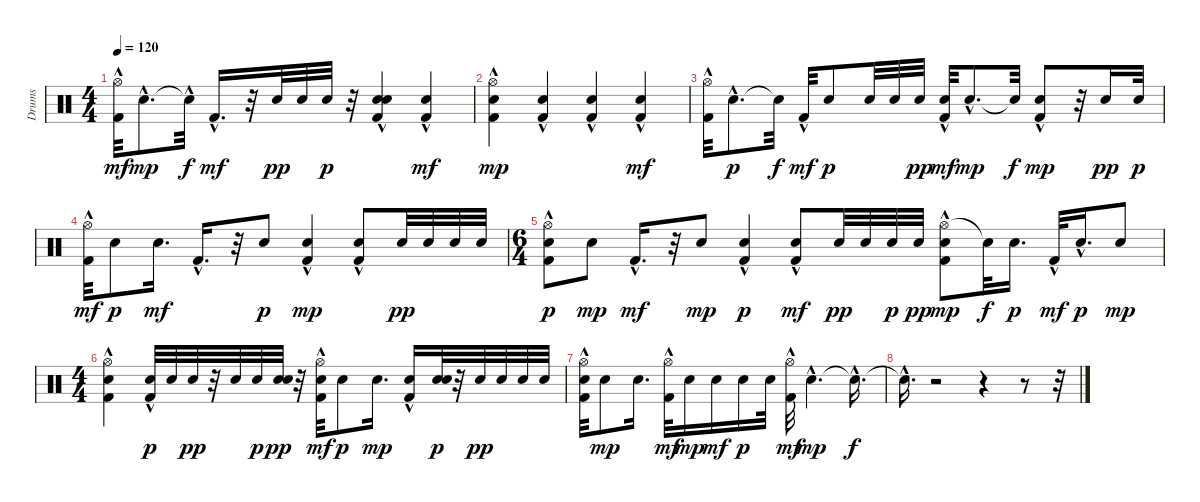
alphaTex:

\track ("Drums" "Drums") {instrument percussion}
\staff {score}
\articulation defaults
\ts (4 4)
\tempo 120
\clef neutral
\ks c
("Hi-Hat (open)"{hac} "Kick (hit) 2"{hac}).32{dy mf} "Snare (hit) 2"{hac}.8{d dy mp} "Snare (hit)"{hac t}.32{dy f} "Kick (hit) 2"{hac}.16{d dy mf} r.32 "Snare (hit) 2".32{dy pp} "Snare (hit) 2".32 "Snare (hit) 2".32{dy p} r.32 ("Snare (hit) 2" "Kick (hit) 2"{hac} "Snare (hit) 2").4 ("Kick (hit) 2"{hac} "Snare (hit) 2").4{dy mf} |
("Hi-Hat (open)"{hac} "Kick (hit) 2"{hac} "Snare (hit) 2").4{dy mp} ("Kick (hit) 2"{hac} "Snare (hit) 2").4 ("Kick (hit) 2"{hac} "Snare (hit) 2").4 ("Kick (hit) 2"{hac} "Snare (hit) 2").4{dy mf} |
("Hi-Hat (open)"{hac} "Kick (hit) 2"{hac}).32 "Snare (hit) 2"{hac}.8{d dy p} "Snare (hit)"{t}.32{dy f} "Kick (hit) 2"{hac}.32{dy mf} "Snare (hit) 2".8{dy p} "Snare (hit) 2".32 "Snare (hit) 2".32 "Snare (hit) 2".32{dy pp} ("Snare (hit) 2" "Kick (hit) 2"{hac}).32{dy mf} "Snare (hit) 2"{hac}.8{d dy mp} "Snare (hit)"{t}.32{dy f} ("Kick (hit) 2"{hac} "Snare (hit) 2").8{dy mp} r.32 "Snare (hit) 2".16{dy pp} "Snare (hit) 2".32{dy p} |
("Hi-Hat (open)"{hac} "Kick (hit) 2"{hac}).32{dy mf} "Snare (hit) 2".8{dy p} "Snare (hit) 2".16{d dy mf} "Kick (hit) 2"{hac}.16{d} r.32 "Snare (hit) 2".8{dy p} ("Kick (hit) 2"{hac} "Snare (hit) 2").4{dy mp} ("Kick (hit) 2"{hac} "Snare (hit) 2").8 "Snare (hit) 2".32{dy pp} "Snare (hit) 2".32 "Snare (hit) 2".32 "Snare (hit) 2".32 |
\ts (6 4)
("Hi-Hat (open)"{hac} "Kick (hit) 2"{hac} "Snare (hit) 2").8{dy p} "Snare (hit) 2".8{dy mp} "Kick (hit) 2"{hac}.16{d dy mf} r.32 "Snare (hit) 2".8{dy mp} ("Kick (hit) 2"{hac} "Snare (hit) 2").4{dy p} ("Kick (hit) 2"{hac} "Snare (hit) 2").8{dy mf} "Snare (hit) 2".32{dy pp} "Snare (hit) 2".32 "Snare (hit) 2".32{dy p} "Snare (hit) 2".32{dy pp} ("Hi-Hat (open)" "Kick (hit) 2"{hac} "Snare (hit) 2").8{dy mp} "Snare (hit)"{t}.32{dy f} "Snare (hit) 2".16{d dy p} "Kick (hit) 2"{hac}.32{dy mf} "Snare (hit) 2"{hac}.16{d dy p} "Snare (hit) 2".8{dy mp} |
\ts (4 4)
("Hi-Hat (open)" "Kick (hit) 2"{hac} "Snare (hit) 2").4 ("Kick (hit) 2"{hac} "Snare (hit) 2").32{dy p} "Snare (hit) 2".32 "Snare (hit) 2".32{dy pp} r.32 "Snare (hit) 2".32 "Snare (hit) 2".32{dy p} ("Snare (hit) 2" "Snare (hit) 2").32{dy pp} r.32 ("Snare (hit) 2" "Hi-Hat (open)" "Kick (hit) 2"{hac}).32{dy mf} "Snare (hit) 2".8{dy p} "Snare (hit) 2".16{d dy mp} ("Kick (hit) 2"{hac} "Snare (hit) 2").16 ("Snare (hit) 2" "Snare (hit) 2").32{dy p} r.32 "Snare (hit) 2".32{dy pp} "Snare (hit) 2".32 "Snare (hit) 2".32 "Snare (hit) 2".32 |
("Hi-Hat (open)" "Kick (hit) 2"{hac} "Snare (hit) 2").32 "Snare (hit) 2".8{dy mp} "Snare (hit) 2".16{d} ("Hi-Hat (open)" "Kick (hit) 2"{hac}).32{dy mf} "Snare (hit) 2".16{dy mp} "Snare (hit) 2".16{dy mf} "Snare (hit) 2".16{dy p} "Snare (hit) 2".32 ("Hi-Hat (open)" "Kick (hit) 2"{hac}).32{dy mf} "Snare (hit) 2"{hac}.4{d dy mp} "Snare (hit)"{hac t}.16{d dy f} |
"Snare (hit)"{hac t}.16{d} r.2 r.4 r.8 r.32
